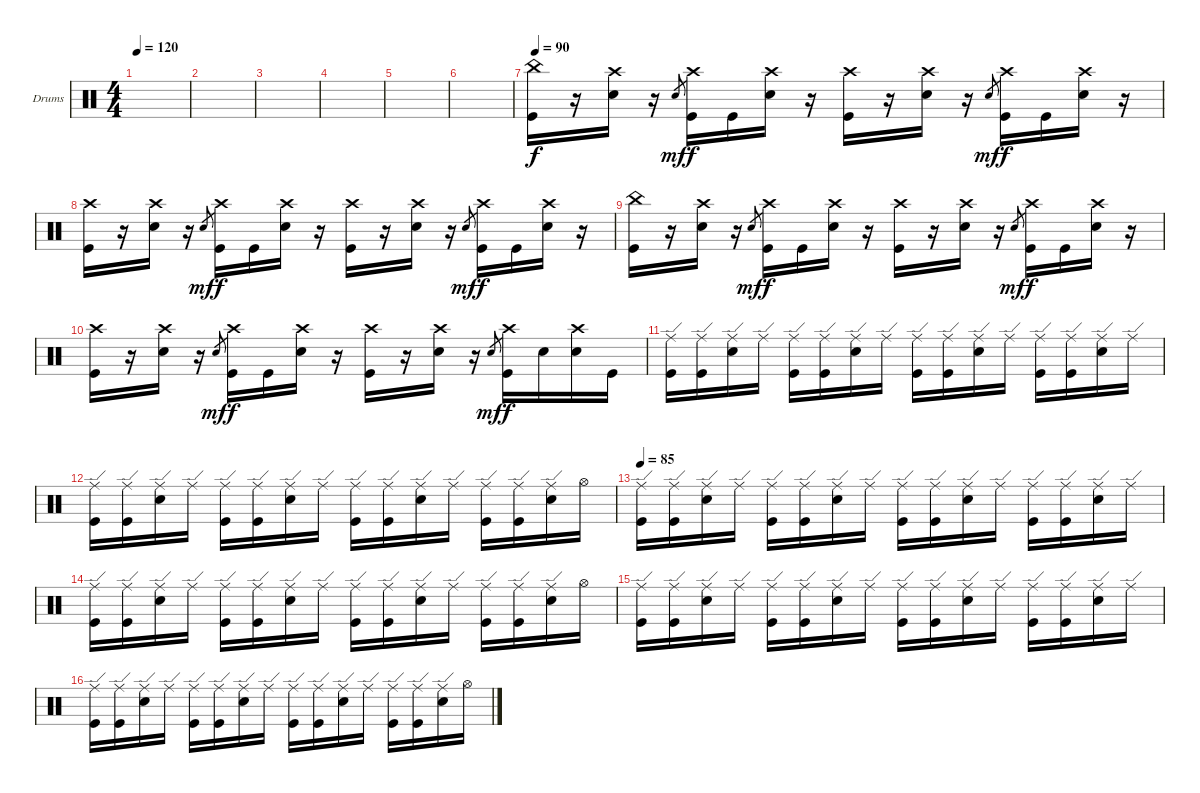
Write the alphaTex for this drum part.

\defaultSystemsLayout 4
\bracketExtendMode groupsimilarinstruments
\firstSystemTrackNameOrientation horizontal
\otherSystemsTrackNameOrientation horizontal
\track ("Drumkit" "Drums") {instrument percussion}
\staff {score}
\articulation defaults
\ts (4 4)
\tempo 120
\clef neutral
\scale
0.474178
\ks c
|
\scale
0.262911 |
\scale
0.262911 |
\scale
0.333333 |
\scale
0.333333 |
\scale
0.333333 |
\tempo 90
\scale
0.333333 ("China (hit)" "Kick (hit)").16 r.16 ("Crash high (hit)" "Snare (hit) 2").16 r.16 "Snare (hit) 2".8{gr dy mf} ("Crash high (hit)" "Kick (hit)").16{dy f} "Kick (hit)".16 ("Crash high (hit)" "Snare (hit) 2").16 r.16 ("Crash high (hit)" "Kick (hit)").16 r.16 ("Crash high (hit)" "Snare (hit) 2").16 r.16 "Snare (hit) 2".8{gr dy mf} ("Crash high (hit)" "Kick (hit)").16{dy f} "Kick (hit)".16 ("Crash high (hit)" "Snare (hit) 2").16 r.16 |
\scale
0.333333 ("Crash high (hit)" "Kick (hit)").16 r.16 ("Crash high (hit)" "Snare (hit) 2").16 r.16 "Snare (hit) 2".8{gr dy mf} ("Crash high (hit)" "Kick (hit)").16{dy f} "Kick (hit)".16 ("Crash high (hit)" "Snare (hit) 2").16 r.16 ("Crash high (hit)" "Kick (hit)").16 r.16 ("Crash high (hit)" "Snare (hit) 2").16 r.16 "Snare (hit) 2".8{gr dy mf} ("Crash high (hit)" "Kick (hit)").16{dy f} "Kick (hit)".16 ("Crash high (hit)" "Snare (hit) 2").16 r.16 |
\scale
0.333333 ("China (hit)" "Kick (hit)").16 r.16 ("Crash high (hit)" "Snare (hit) 2").16 r.16 "Snare (hit) 2".8{gr dy mf} ("Crash high (hit)" "Kick (hit)").16{dy f} "Kick (hit)".16 ("Crash high (hit)" "Snare (hit) 2").16 r.16 ("Crash high (hit)" "Kick (hit)").16 r.16 ("Crash high (hit)" "Snare (hit) 2").16 r.16 "Snare (hit) 2".8{gr dy mf} ("Crash high (hit)" "Kick (hit)").16{dy f} "Kick (hit)".16 ("Crash high (hit)" "Snare (hit) 2").16 r.16 |
\scale
0.333333 ("Crash high (hit)" "Kick (hit)").16 r.16 ("Crash high (hit)" "Snare (hit) 2").16 r.16 "Snare (hit) 2".8{gr dy mf} ("Crash high (hit)" "Kick (hit)").16{dy f} "Kick (hit)".16 ("Crash high (hit)" "Snare (hit) 2").16 r.16 ("Crash high (hit)" "Kick (hit)").16 r.16 ("Crash high (hit)" "Snare (hit) 2").16 r.16 "Snare (hit) 2".8{gr dy mf} ("Crash high (hit)" "Kick (hit)").16{dy f} "Snare (hit) 2".16 ("Crash high (hit)" "Snare (hit) 2").16 "Kick (hit)".16 |
\scale
0.333333 ("Ride (edge)" "Kick (hit)").16 ("Ride (edge)" "Kick (hit)").16 ("Ride (edge)" "Snare (hit) 2").16 "Ride (edge)".16 ("Ride (edge)" "Kick (hit)").16 ("Ride (edge)" "Kick (hit)").16 ("Ride (edge)" "Snare (hit) 2").16 "Ride (edge)".16 ("Ride (edge)" "Kick (hit)").16 ("Ride (edge)" "Kick (hit)").16 ("Ride (edge)" "Snare (hit) 2").16 "Ride (edge)".16 ("Ride (edge)" "Kick (hit)").16 ("Ride (edge)" "Kick (hit)").16 ("Ride (edge)" "Snare (hit) 2").16 "Ride (edge)".16 |
\scale
0.333333 ("Ride (edge)" "Kick (hit)").16 ("Ride (edge)" "Kick (hit)").16 ("Ride (edge)" "Snare (hit) 2").16 "Ride (edge)".16 ("Ride (edge)" "Kick (hit)").16 ("Ride (edge)" "Kick (hit)").16 ("Ride (edge)" "Snare (hit) 2").16 "Ride (edge)".16 ("Ride (edge)" "Kick (hit)").16 ("Ride (edge)" "Kick (hit)").16 ("Ride (edge)" "Snare (hit) 2").16 "Ride (edge)".16 ("Ride (edge)" "Kick (hit)").16 ("Ride (edge)" "Kick (hit)").16 ("Ride (edge)" "Snare (hit) 2").16 "Hi-Hat (open)".16 |
\tempo 85
\scale
0.333333 ("Ride (edge)" "Kick (hit)").16 ("Ride (edge)" "Kick (hit)").16 ("Ride (edge)" "Snare (hit) 2").16 "Ride (edge)".16 ("Ride (edge)" "Kick (hit)").16 ("Ride (edge)" "Kick (hit)").16 ("Ride (edge)" "Snare (hit) 2").16 "Ride (edge)".16 ("Ride (edge)" "Kick (hit)").16 ("Ride (edge)" "Kick (hit)").16 ("Ride (edge)" "Snare (hit) 2").16 "Ride (edge)".16 ("Ride (edge)" "Kick (hit)").16 ("Ride (edge)" "Kick (hit)").16 ("Ride (edge)" "Snare (hit) 2").16 "Ride (edge)".16 |
\scale
0.333333 ("Ride (edge)" "Kick (hit)").16 ("Ride (edge)" "Kick (hit)").16 ("Ride (edge)" "Snare (hit) 2").16 "Ride (edge)".16 ("Ride (edge)" "Kick (hit)").16 ("Ride (edge)" "Kick (hit)").16 ("Ride (edge)" "Snare (hit) 2").16 "Ride (edge)".16 ("Ride (edge)" "Kick (hit)").16 ("Ride (edge)" "Kick (hit)").16 ("Ride (edge)" "Snare (hit) 2").16 "Ride (edge)".16 ("Ride (edge)" "Kick (hit)").16 ("Ride (edge)" "Kick (hit)").16 ("Ride (edge)" "Snare (hit) 2").16 "Hi-Hat (open)".16 |
\scale
0.333333 ("Ride (edge)" "Kick (hit)").16 ("Ride (edge)" "Kick (hit)").16 ("Ride (edge)" "Snare (hit) 2").16 "Ride (edge)".16 ("Ride (edge)" "Kick (hit)").16 ("Ride (edge)" "Kick (hit)").16 ("Ride (edge)" "Snare (hit) 2").16 "Ride (edge)".16 ("Ride (edge)" "Kick (hit)").16 ("Ride (edge)" "Kick (hit)").16 ("Ride (edge)" "Snare (hit) 2").16 "Ride (edge)".16 ("Ride (edge)" "Kick (hit)").16 ("Ride (edge)" "Kick (hit)").16 ("Ride (edge)" "Snare (hit) 2").16 "Ride (edge)".16 |
\scale
0.333333 ("Ride (edge)" "Kick (hit)").16 ("Ride (edge)" "Kick (hit)").16 ("Ride (edge)" "Snare (hit) 2").16 "Ride (edge)".16 ("Ride (edge)" "Kick (hit)").16 ("Ride (edge)" "Kick (hit)").16 ("Ride (edge)" "Snare (hit) 2").16 "Ride (edge)".16 ("Ride (edge)" "Kick (hit)").16 ("Ride (edge)" "Kick (hit)").16 ("Ride (edge)" "Snare (hit) 2").16 "Ride (edge)".16 ("Ride (edge)" "Kick (hit)").16 ("Ride (edge)" "Kick (hit)").16 ("Ride (edge)" "Snare (hit) 2").16 "Hi-Hat (open)".16
